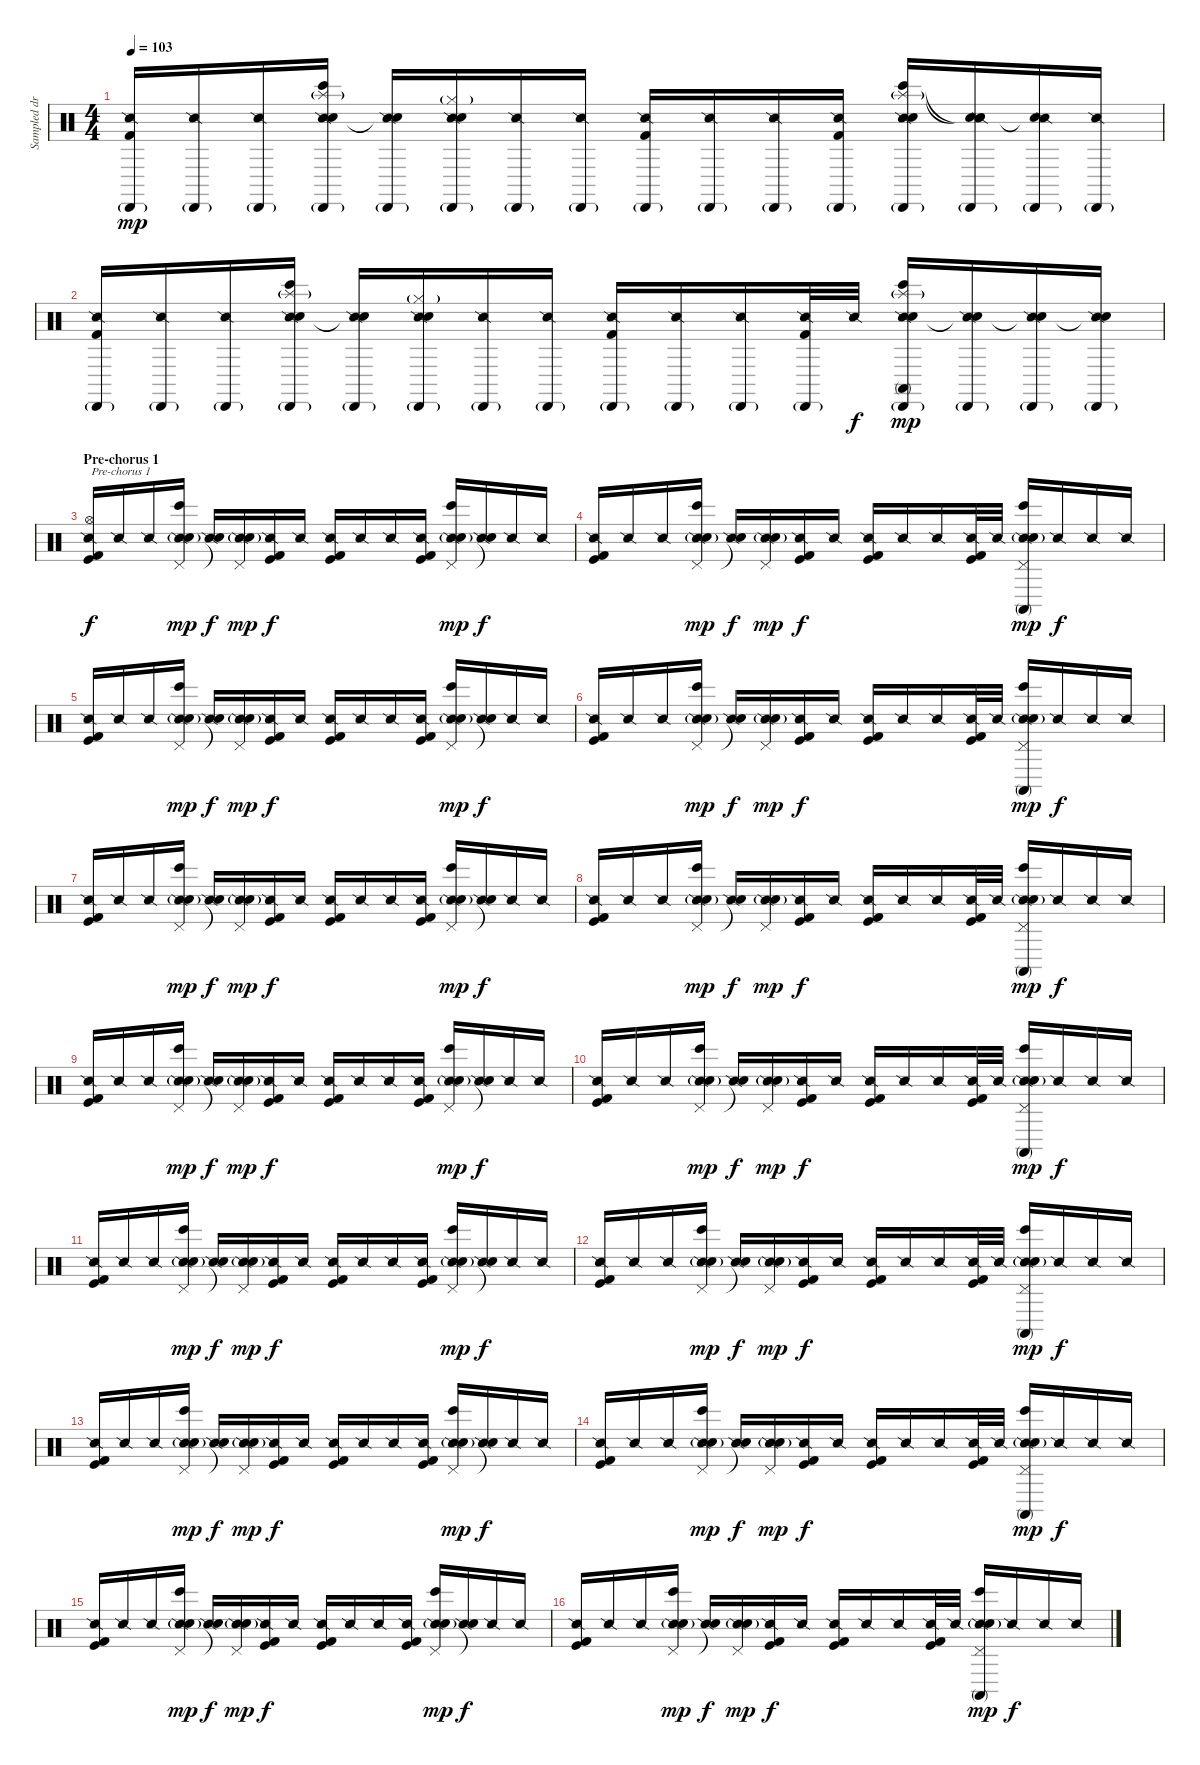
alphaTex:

\track ("Sampled drums (Rob with Joe)" "Sampled dr") {instrument percussion}
\staff {score}
\articulation defaults
\ts (4 4)
\tempo 103
\clef neutral
\ks c
("Cabasa (hit)"{g} "Snare (side stick) 2" "Kick (hit) 2").16{dy mp} ("Cabasa (hit)"{g} "Snare (side stick) 2").16 ("Cabasa (hit)"{g} "Snare (side stick) 2").16 ("Cabasa (hit)"{g} "Splash (hit)"{g} "Snare (side stick) 2" "Bongo High (hit)" "Snare (hit) 2").16 ("Cabasa (hit)"{g} "Snare (side stick) 2" "Snare (hit)"{t}).16 ("Cabasa (hit)"{g} "Hi-Hat (closed)"{g} "Snare (side stick) 2" "Snare (hit) 2").16 ("Cabasa (hit)"{g} "Snare (side stick) 2").16 ("Cabasa (hit)"{g} "Snare (side stick) 2").16 ("Cabasa (hit)"{g} "Snare (side stick) 2" "Kick (hit) 2").16 ("Cabasa (hit)"{g} "Snare (side stick) 2").16 ("Cabasa (hit)"{g} "Snare (side stick) 2").16 ("Cabasa (hit)"{g} "Snare (side stick) 2" "Kick (hit) 2").16 ("Cabasa (hit)"{g} "Splash (hit)"{g} "Snare (side stick) 2" "Bongo High (hit)" "Snare (hit) 2").16 ("Cabasa (hit)"{g} "Snare (hit)"{t} "Snare (side stick) 2" "Snare (hit)"{t}).16 ("Cabasa (hit)"{g} "Snare (hit)"{t} "Snare (side stick) 2").16 ("Cabasa (hit)"{g} "Snare (side stick) 2").16 |
("Cabasa (hit)"{g} "Snare (side stick) 2" "Kick (hit) 2").16 ("Cabasa (hit)"{g} "Snare (side stick) 2").16 ("Cabasa (hit)"{g} "Snare (side stick) 2").16 ("Cabasa (hit)"{g} "Splash (hit)"{g} "Snare (side stick) 2" "Bongo High (hit)" "Snare (hit) 2").16 ("Cabasa (hit)"{g} "Snare (side stick) 2" "Snare (hit)"{t}).16 ("Cabasa (hit)"{g} "Hi-Hat (closed)"{g} "Snare (side stick) 2" "Snare (hit) 2").16 ("Cabasa (hit)"{g} "Snare (side stick) 2").16 ("Cabasa (hit)"{g} "Snare (side stick) 2").16 ("Cabasa (hit)"{g} "Snare (side stick) 2" "Kick (hit) 2").16 ("Cabasa (hit)"{g} "Snare (side stick) 2").16 ("Cabasa (hit)"{g} "Snare (side stick) 2").16 ("Cabasa (hit)"{g} "Snare (side stick) 2" "Kick (hit) 2").32 "Snare (side stick) 2".32{dy f} ("Cabasa (hit)"{g} "Conga high (mute)" "Snare (side stick) 2" "Bongo High (hit)" "Snare (hit) 2" "Splash (hit)"{g}).16{dy mp} ("Cabasa (hit)"{g} "Snare (side stick) 2" "Snare (hit)"{t}).16 ("Cabasa (hit)"{g} "Snare (side stick) 2" "Snare (hit)"{t}).16 ("Cabasa (hit)"{g} "Snare (side stick) 2" "Snare (hit)"{t}).16 |
\section ("" "Pre-chorus 1")
("Snare (side stick) 2" "Hi-Hat (open)" "Kick (hit)" "Kick (hit) 2").16{txt "Pre-chorus 1" dy f} "Snare (side stick) 2".16 "Snare (side stick) 2".16 ("Snare (side stick) 2" "Pedal Hi-Hat (hit)" "Bongo High (hit)" "Snare (hit) 2"{g}).16{dy mp} ("Snare (side stick) 2" "Snare (hit)"{t}).16{dy f} ("Snare (side stick) 2" "Pedal Hi-Hat (hit)" "Snare (hit) 2"{g}).16{dy mp} ("Snare (side stick) 2" "Kick (hit)" "Kick (hit) 2").16{dy f} "Snare (side stick) 2".16 ("Snare (side stick) 2" "Kick (hit)" "Kick (hit) 2").16 "Snare (side stick) 2".16 "Snare (side stick) 2".16 ("Snare (side stick) 2" "Kick (hit)" "Kick (hit) 2").16 ("Snare (side stick) 2" "Pedal Hi-Hat (hit)" "Bongo High (hit)" "Snare (hit) 2"{g}).16{dy mp} ("Snare (side stick) 2" "Snare (hit)"{t}).16{dy f} "Snare (side stick) 2".16 "Snare (side stick) 2".16 |
("Snare (side stick) 2" "Kick (hit)" "Kick (hit) 2").16 "Snare (side stick) 2".16 "Snare (side stick) 2".16 ("Snare (side stick) 2" "Pedal Hi-Hat (hit)" "Bongo High (hit)" "Snare (hit) 2"{g}).16{dy mp} ("Snare (side stick) 2" "Snare (hit)"{t}).16{dy f} ("Snare (side stick) 2" "Pedal Hi-Hat (hit)" "Snare (hit) 2"{g}).16{dy mp} ("Snare (side stick) 2" "Kick (hit)" "Kick (hit) 2").16{dy f} "Snare (side stick) 2".16 ("Snare (side stick) 2" "Kick (hit)" "Kick (hit) 2").16 "Snare (side stick) 2".16 "Snare (side stick) 2".16 ("Snare (side stick) 2" "Kick (hit)" "Kick (hit) 2").32 "Snare (side stick) 2".32 ("Snare (side stick) 2" "Pedal Hi-Hat (hit)" "Conga high (mute)" "Bongo High (hit)" "Snare (hit) 2"{g}).16{dy mp} "Snare (side stick) 2".16{dy f} "Snare (side stick) 2".16 "Snare (side stick) 2".16 |
("Snare (side stick) 2" "Kick (hit)" "Kick (hit) 2").16 "Snare (side stick) 2".16 "Snare (side stick) 2".16 ("Snare (side stick) 2" "Pedal Hi-Hat (hit)" "Bongo High (hit)" "Snare (hit) 2"{g}).16{dy mp} ("Snare (side stick) 2" "Snare (hit)"{t}).16{dy f} ("Snare (side stick) 2" "Pedal Hi-Hat (hit)" "Snare (hit) 2"{g}).16{dy mp} ("Snare (side stick) 2" "Kick (hit)" "Kick (hit) 2").16{dy f} "Snare (side stick) 2".16 ("Snare (side stick) 2" "Kick (hit)" "Kick (hit) 2").16 "Snare (side stick) 2".16 "Snare (side stick) 2".16 ("Snare (side stick) 2" "Kick (hit)" "Kick (hit) 2").16 ("Snare (side stick) 2" "Pedal Hi-Hat (hit)" "Bongo High (hit)" "Snare (hit) 2"{g}).16{dy mp} ("Snare (side stick) 2" "Snare (hit)"{t}).16{dy f} "Snare (side stick) 2".16 "Snare (side stick) 2".16 |
("Snare (side stick) 2" "Kick (hit)" "Kick (hit) 2").16 "Snare (side stick) 2".16 "Snare (side stick) 2".16 ("Snare (side stick) 2" "Pedal Hi-Hat (hit)" "Bongo High (hit)" "Snare (hit) 2"{g}).16{dy mp} ("Snare (side stick) 2" "Snare (hit)"{t}).16{dy f} ("Snare (side stick) 2" "Pedal Hi-Hat (hit)" "Snare (hit) 2"{g}).16{dy mp} ("Snare (side stick) 2" "Kick (hit)" "Kick (hit) 2").16{dy f} "Snare (side stick) 2".16 ("Snare (side stick) 2" "Kick (hit)" "Kick (hit) 2").16 "Snare (side stick) 2".16 "Snare (side stick) 2".16 ("Snare (side stick) 2" "Kick (hit)" "Kick (hit) 2").32 "Snare (side stick) 2".32 ("Snare (side stick) 2" "Pedal Hi-Hat (hit)" "Conga high (mute)" "Bongo High (hit)" "Snare (hit) 2"{g}).16{dy mp} "Snare (side stick) 2".16{dy f} "Snare (side stick) 2".16 "Snare (side stick) 2".16 |
("Snare (side stick) 2" "Kick (hit)" "Kick (hit) 2").16 "Snare (side stick) 2".16 "Snare (side stick) 2".16 ("Snare (side stick) 2" "Pedal Hi-Hat (hit)" "Bongo High (hit)" "Snare (hit) 2"{g}).16{dy mp} ("Snare (side stick) 2" "Snare (hit)"{t}).16{dy f} ("Snare (side stick) 2" "Pedal Hi-Hat (hit)" "Snare (hit) 2"{g}).16{dy mp} ("Snare (side stick) 2" "Kick (hit)" "Kick (hit) 2").16{dy f} "Snare (side stick) 2".16 ("Snare (side stick) 2" "Kick (hit)" "Kick (hit) 2").16 "Snare (side stick) 2".16 "Snare (side stick) 2".16 ("Snare (side stick) 2" "Kick (hit)" "Kick (hit) 2").16 ("Snare (side stick) 2" "Pedal Hi-Hat (hit)" "Bongo High (hit)" "Snare (hit) 2"{g}).16{dy mp} ("Snare (side stick) 2" "Snare (hit)"{t}).16{dy f} "Snare (side stick) 2".16 "Snare (side stick) 2".16 |
("Snare (side stick) 2" "Kick (hit)" "Kick (hit) 2").16 "Snare (side stick) 2".16 "Snare (side stick) 2".16 ("Snare (side stick) 2" "Pedal Hi-Hat (hit)" "Bongo High (hit)" "Snare (hit) 2"{g}).16{dy mp} ("Snare (side stick) 2" "Snare (hit)"{t}).16{dy f} ("Snare (side stick) 2" "Pedal Hi-Hat (hit)" "Snare (hit) 2"{g}).16{dy mp} ("Snare (side stick) 2" "Kick (hit)" "Kick (hit) 2").16{dy f} "Snare (side stick) 2".16 ("Snare (side stick) 2" "Kick (hit)" "Kick (hit) 2").16 "Snare (side stick) 2".16 "Snare (side stick) 2".16 ("Snare (side stick) 2" "Kick (hit)" "Kick (hit) 2").32 "Snare (side stick) 2".32 ("Snare (side stick) 2" "Pedal Hi-Hat (hit)" "Conga high (mute)" "Bongo High (hit)" "Snare (hit) 2"{g}).16{dy mp} "Snare (side stick) 2".16{dy f} "Snare (side stick) 2".16 "Snare (side stick) 2".16 |
("Snare (side stick) 2" "Kick (hit)" "Kick (hit) 2").16 "Snare (side stick) 2".16 "Snare (side stick) 2".16 ("Snare (side stick) 2" "Pedal Hi-Hat (hit)" "Bongo High (hit)" "Snare (hit) 2"{g}).16{dy mp} ("Snare (side stick) 2" "Snare (hit)"{t}).16{dy f} ("Snare (side stick) 2" "Pedal Hi-Hat (hit)" "Snare (hit) 2"{g}).16{dy mp} ("Snare (side stick) 2" "Kick (hit)" "Kick (hit) 2").16{dy f} "Snare (side stick) 2".16 ("Snare (side stick) 2" "Kick (hit)" "Kick (hit) 2").16 "Snare (side stick) 2".16 "Snare (side stick) 2".16 ("Snare (side stick) 2" "Kick (hit)" "Kick (hit) 2").16 ("Snare (side stick) 2" "Pedal Hi-Hat (hit)" "Bongo High (hit)" "Snare (hit) 2"{g}).16{dy mp} ("Snare (side stick) 2" "Snare (hit)"{t}).16{dy f} "Snare (side stick) 2".16 "Snare (side stick) 2".16 |
("Snare (side stick) 2" "Kick (hit)" "Kick (hit) 2").16 "Snare (side stick) 2".16 "Snare (side stick) 2".16 ("Snare (side stick) 2" "Pedal Hi-Hat (hit)" "Bongo High (hit)" "Snare (hit) 2"{g}).16{dy mp} ("Snare (side stick) 2" "Snare (hit)"{t}).16{dy f} ("Snare (side stick) 2" "Pedal Hi-Hat (hit)" "Snare (hit) 2"{g}).16{dy mp} ("Snare (side stick) 2" "Kick (hit)" "Kick (hit) 2").16{dy f} "Snare (side stick) 2".16 ("Snare (side stick) 2" "Kick (hit)" "Kick (hit) 2").16 "Snare (side stick) 2".16 "Snare (side stick) 2".16 ("Snare (side stick) 2" "Kick (hit)" "Kick (hit) 2").32 "Snare (side stick) 2".32 ("Snare (side stick) 2" "Pedal Hi-Hat (hit)" "Conga high (mute)" "Bongo High (hit)" "Snare (hit) 2"{g}).16{dy mp} "Snare (side stick) 2".16{dy f} "Snare (side stick) 2".16 "Snare (side stick) 2".16 |
("Snare (side stick) 2" "Kick (hit)" "Kick (hit) 2").16 "Snare (side stick) 2".16 "Snare (side stick) 2".16 ("Snare (side stick) 2" "Pedal Hi-Hat (hit)" "Bongo High (hit)" "Snare (hit) 2"{g}).16{dy mp} ("Snare (side stick) 2" "Snare (hit)"{t}).16{dy f} ("Snare (side stick) 2" "Pedal Hi-Hat (hit)" "Snare (hit) 2"{g}).16{dy mp} ("Snare (side stick) 2" "Kick (hit)" "Kick (hit) 2").16{dy f} "Snare (side stick) 2".16 ("Snare (side stick) 2" "Kick (hit)" "Kick (hit) 2").16 "Snare (side stick) 2".16 "Snare (side stick) 2".16 ("Snare (side stick) 2" "Kick (hit)" "Kick (hit) 2").16 ("Snare (side stick) 2" "Pedal Hi-Hat (hit)" "Bongo High (hit)" "Snare (hit) 2"{g}).16{dy mp} ("Snare (side stick) 2" "Snare (hit)"{t}).16{dy f} "Snare (side stick) 2".16 "Snare (side stick) 2".16 |
("Snare (side stick) 2" "Kick (hit)" "Kick (hit) 2").16 "Snare (side stick) 2".16 "Snare (side stick) 2".16 ("Snare (side stick) 2" "Pedal Hi-Hat (hit)" "Bongo High (hit)" "Snare (hit) 2"{g}).16{dy mp} ("Snare (side stick) 2" "Snare (hit)"{t}).16{dy f} ("Snare (side stick) 2" "Pedal Hi-Hat (hit)" "Snare (hit) 2"{g}).16{dy mp} ("Snare (side stick) 2" "Kick (hit)" "Kick (hit) 2").16{dy f} "Snare (side stick) 2".16 ("Snare (side stick) 2" "Kick (hit)" "Kick (hit) 2").16 "Snare (side stick) 2".16 "Snare (side stick) 2".16 ("Snare (side stick) 2" "Kick (hit)" "Kick (hit) 2").32 "Snare (side stick) 2".32 ("Snare (side stick) 2" "Pedal Hi-Hat (hit)" "Conga high (mute)" "Bongo High (hit)" "Snare (hit) 2"{g}).16{dy mp} "Snare (side stick) 2".16{dy f} "Snare (side stick) 2".16 "Snare (side stick) 2".16 |
("Snare (side stick) 2" "Kick (hit)" "Kick (hit) 2").16 "Snare (side stick) 2".16 "Snare (side stick) 2".16 ("Snare (side stick) 2" "Pedal Hi-Hat (hit)" "Bongo High (hit)" "Snare (hit) 2"{g}).16{dy mp} ("Snare (side stick) 2" "Snare (hit)"{t}).16{dy f} ("Snare (side stick) 2" "Pedal Hi-Hat (hit)" "Snare (hit) 2"{g}).16{dy mp} ("Snare (side stick) 2" "Kick (hit)" "Kick (hit) 2").16{dy f} "Snare (side stick) 2".16 ("Snare (side stick) 2" "Kick (hit)" "Kick (hit) 2").16 "Snare (side stick) 2".16 "Snare (side stick) 2".16 ("Snare (side stick) 2" "Kick (hit)" "Kick (hit) 2").16 ("Snare (side stick) 2" "Pedal Hi-Hat (hit)" "Bongo High (hit)" "Snare (hit) 2"{g}).16{dy mp} ("Snare (side stick) 2" "Snare (hit)"{t}).16{dy f} "Snare (side stick) 2".16 "Snare (side stick) 2".16 |
("Snare (side stick) 2" "Kick (hit)" "Kick (hit) 2").16 "Snare (side stick) 2".16 "Snare (side stick) 2".16 ("Snare (side stick) 2" "Pedal Hi-Hat (hit)" "Bongo High (hit)" "Snare (hit) 2"{g}).16{dy mp} ("Snare (side stick) 2" "Snare (hit)"{t}).16{dy f} ("Snare (side stick) 2" "Pedal Hi-Hat (hit)" "Snare (hit) 2"{g}).16{dy mp} ("Snare (side stick) 2" "Kick (hit)" "Kick (hit) 2").16{dy f} "Snare (side stick) 2".16 ("Snare (side stick) 2" "Kick (hit)" "Kick (hit) 2").16 "Snare (side stick) 2".16 "Snare (side stick) 2".16 ("Snare (side stick) 2" "Kick (hit)" "Kick (hit) 2").32 "Snare (side stick) 2".32 ("Snare (side stick) 2" "Pedal Hi-Hat (hit)" "Conga high (mute)" "Bongo High (hit)" "Snare (hit) 2"{g}).16{dy mp} "Snare (side stick) 2".16{dy f} "Snare (side stick) 2".16 "Snare (side stick) 2".16 |
("Snare (side stick) 2" "Kick (hit)" "Kick (hit) 2").16 "Snare (side stick) 2".16 "Snare (side stick) 2".16 ("Snare (side stick) 2" "Pedal Hi-Hat (hit)" "Bongo High (hit)" "Snare (hit) 2"{g}).16{dy mp} ("Snare (side stick) 2" "Snare (hit)"{t}).16{dy f} ("Snare (side stick) 2" "Pedal Hi-Hat (hit)" "Snare (hit) 2"{g}).16{dy mp} ("Snare (side stick) 2" "Kick (hit)" "Kick (hit) 2").16{dy f} "Snare (side stick) 2".16 ("Snare (side stick) 2" "Kick (hit)" "Kick (hit) 2").16 "Snare (side stick) 2".16 "Snare (side stick) 2".16 ("Snare (side stick) 2" "Kick (hit)" "Kick (hit) 2").16 ("Snare (side stick) 2" "Pedal Hi-Hat (hit)" "Bongo High (hit)" "Snare (hit) 2"{g}).16{dy mp} ("Snare (side stick) 2" "Snare (hit)"{t}).16{dy f} "Snare (side stick) 2".16 "Snare (side stick) 2".16 |
("Snare (side stick) 2" "Kick (hit)" "Kick (hit) 2").16 "Snare (side stick) 2".16 "Snare (side stick) 2".16 ("Snare (side stick) 2" "Pedal Hi-Hat (hit)" "Bongo High (hit)" "Snare (hit) 2"{g}).16{dy mp} ("Snare (side stick) 2" "Snare (hit)"{t}).16{dy f} ("Snare (side stick) 2" "Pedal Hi-Hat (hit)" "Snare (hit) 2"{g}).16{dy mp} ("Snare (side stick) 2" "Kick (hit)" "Kick (hit) 2").16{dy f} "Snare (side stick) 2".16 ("Snare (side stick) 2" "Kick (hit)" "Kick (hit) 2").16 "Snare (side stick) 2".16 "Snare (side stick) 2".16 ("Snare (side stick) 2" "Kick (hit)" "Kick (hit) 2").32 "Snare (side stick) 2".32 ("Snare (side stick) 2" "Pedal Hi-Hat (hit)" "Conga high (mute)" "Bongo High (hit)" "Snare (hit) 2"{g}).16{dy mp} "Snare (side stick) 2".16{dy f} "Snare (side stick) 2".16 "Snare (side stick) 2".16
